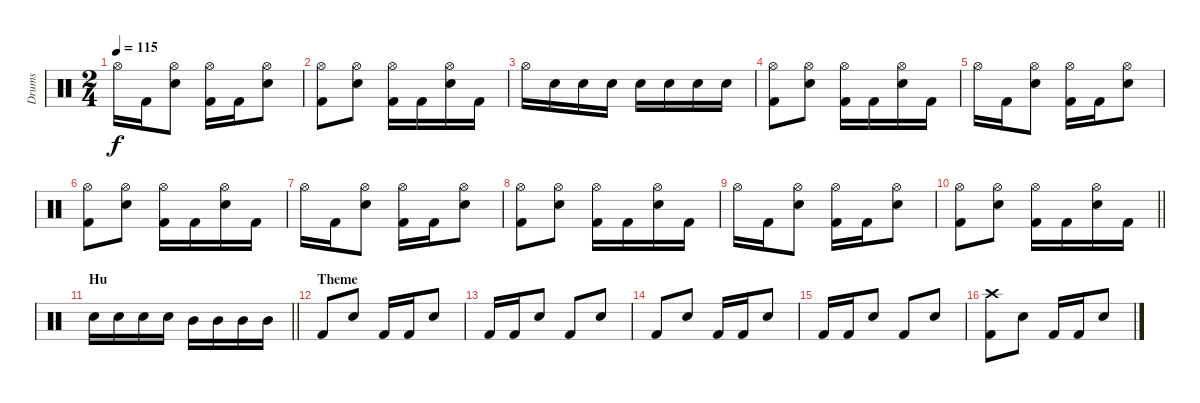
\track ("Drums" "Drums") {instrument percussion}
\staff {score}
\articulation defaults
\ts (2 4)
\tempo 115
\clef neutral
\ks c "Hi-Hat (open)".16{dy f} "Kick (hit) 2".16
("Hi-Hat (open)" "Electric Snare (hit)").8 ("Hi-Hat (open)" "Kick (hit) 2").16 "Kick (hit) 2".16 ("Hi-Hat (open)" "Electric Snare (hit)").8 |
("Hi-Hat (open)" "Kick (hit) 2").8 ("Hi-Hat (open)" "Electric Snare (hit)").8 ("Hi-Hat (open)" "Kick (hit) 2").16 "Kick (hit) 2".16 ("Hi-Hat (open)" "Electric Snare (hit)").16 "Kick (hit) 2".16 |
"Hi-Hat (open)".16 "Electric Snare (hit)".16 "Electric Snare (hit)".16 "Electric Snare (hit)".16 "Electric Snare (hit)".16 "Electric Snare (hit)".16 "Electric Snare (hit)".16 "Electric Snare (hit)".16 |
("Hi-Hat (open)" "Kick (hit) 2").8 ("Hi-Hat (open)" "Electric Snare (hit)").8 ("Hi-Hat (open)" "Kick (hit) 2").16 "Kick (hit) 2".16 ("Hi-Hat (open)" "Electric Snare (hit)").16 "Kick (hit) 2".16 |
"Hi-Hat (open)".16 "Kick (hit) 2".16 ("Hi-Hat (open)" "Electric Snare (hit)").8 ("Hi-Hat (open)" "Kick (hit) 2").16 "Kick (hit) 2".16 ("Hi-Hat (open)" "Electric Snare (hit)").8 |
("Hi-Hat (open)" "Kick (hit) 2").8 ("Hi-Hat (open)" "Electric Snare (hit)").8 ("Hi-Hat (open)" "Kick (hit) 2").16 "Kick (hit) 2".16 ("Hi-Hat (open)" "Electric Snare (hit)").16 "Kick (hit) 2".16 |
"Hi-Hat (open)".16 "Kick (hit) 2".16 ("Hi-Hat (open)" "Electric Snare (hit)").8 ("Hi-Hat (open)" "Kick (hit) 2").16 "Kick (hit) 2".16 ("Hi-Hat (open)" "Electric Snare (hit)").8 |
("Hi-Hat (open)" "Kick (hit) 2").8 ("Hi-Hat (open)" "Electric Snare (hit)").8 ("Hi-Hat (open)" "Kick (hit) 2").16 "Kick (hit) 2".16 ("Hi-Hat (open)" "Electric Snare (hit)").16 "Kick (hit) 2".16 |
"Hi-Hat (open)".16 "Kick (hit) 2".16 ("Hi-Hat (open)" "Electric Snare (hit)").8 ("Hi-Hat (open)" "Kick (hit) 2").16 "Kick (hit) 2".16 ("Hi-Hat (open)" "Electric Snare (hit)").8 |
\barLineRight lightlight
("Hi-Hat (open)" "Kick (hit) 2").8 ("Hi-Hat (open)" "Electric Snare (hit)").8 ("Hi-Hat (open)" "Kick (hit) 2").16 "Kick (hit) 2".16 ("Hi-Hat (open)" "Electric Snare (hit)").16 "Kick (hit) 2".16 |
\section ("" "Hu")
\barLineRight lightlight "Electric Snare (hit)".16 "Electric Snare (hit)".16 "Electric Snare (hit)".16 "Electric Snare (hit)".16 "Mid Tom (hit)".16 "Mid Tom (hit)".16 "Mid Tom (hit)".16 "Mid Tom (hit)".16
|
\section ("" "Theme")
"Kick (hit) 2".8 "Electric Snare (hit)".8 "Kick (hit) 2".16 "Kick (hit) 2".16 "Electric Snare (hit)".8 |
"Kick (hit) 2".16 "Kick (hit) 2".16 "Electric Snare (hit)".8 "Kick (hit) 2".8 "Electric Snare (hit)".8 |
"Kick (hit) 2".8 "Electric Snare (hit)".8 "Kick (hit) 2".16 "Kick (hit) 2".16 "Electric Snare (hit)".8 |
"Kick (hit) 2".16 "Kick (hit) 2".16 "Electric Snare (hit)".8 "Kick (hit) 2".8 "Electric Snare (hit)".8 |
("Crash high (hit)" "Kick (hit) 2").8 "Electric Snare (hit)".8 "Kick (hit) 2".16 "Kick (hit) 2".16 "Electric Snare (hit)".8
